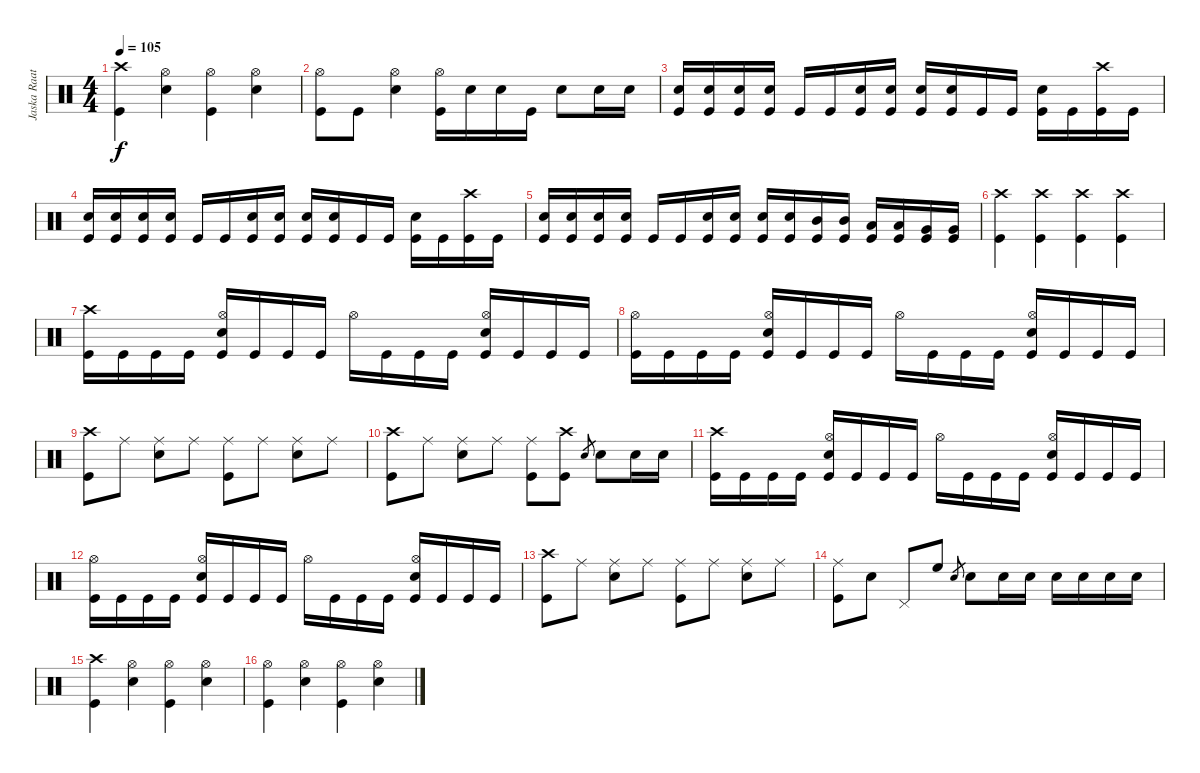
\track ("Jaska Raatikainen" "Jaska Raat") {instrument percussion}
\staff {score}
\articulation defaults
\ts (4 4)
\tempo 105
\clef neutral
\ks c
("Crash high (hit)" "Kick (hit)").4{dy f} ("Hi-Hat (open)" "Snare (hit) 2").4 ("Hi-Hat (open)" "Kick (hit)").4 ("Hi-Hat (open)" "Snare (hit) 2").4 |
("Hi-Hat (open)" "Kick (hit)").8 "Kick (hit)".8 ("Hi-Hat (open)" "Snare (hit) 2").4 ("Hi-Hat (open)" "Kick (hit)").16 "Snare (hit) 2".16 "Snare (hit) 2".16 "Kick (hit)".16 "Snare (hit) 2".8 "Snare (hit) 2".16 "Snare (hit) 2".16 |
("Snare (hit) 2" "Kick (hit)").16 ("Snare (hit) 2" "Kick (hit)").16 ("Snare (hit) 2" "Kick (hit)").16 ("Snare (hit) 2" "Kick (hit)").16 "Kick (hit)".16 "Kick (hit)".16 ("Snare (hit) 2" "Kick (hit)").16 ("Snare (hit) 2" "Kick (hit)").16 ("Snare (hit) 2" "Kick (hit)").16 ("Snare (hit) 2" "Kick (hit)").16 "Kick (hit)".16 "Kick (hit)".16 ("Snare (hit) 2" "Kick (hit)").16 "Kick (hit)".16 ("Crash high (hit)" "Kick (hit)").16 "Kick (hit)".16 |
("Snare (hit) 2" "Kick (hit)").16 ("Snare (hit) 2" "Kick (hit)").16 ("Snare (hit) 2" "Kick (hit)").16 ("Snare (hit) 2" "Kick (hit)").16 "Kick (hit)".16 "Kick (hit)".16 ("Snare (hit) 2" "Kick (hit)").16 ("Snare (hit) 2" "Kick (hit)").16 ("Snare (hit) 2" "Kick (hit)").16 ("Snare (hit) 2" "Kick (hit)").16 "Kick (hit)".16 "Kick (hit)".16 ("Snare (hit) 2" "Kick (hit)").16 "Kick (hit)".16 ("Crash high (hit)" "Kick (hit)").16 "Kick (hit)".16 |
("Snare (hit) 2" "Kick (hit)").16 ("Snare (hit) 2" "Kick (hit)").16 ("Snare (hit) 2" "Kick (hit)").16 ("Snare (hit) 2" "Kick (hit)").16 "Kick (hit)".16 "Kick (hit)".16 ("Snare (hit) 2" "Kick (hit)").16 ("Snare (hit) 2" "Kick (hit)").16 ("Snare (hit) 2" "Kick (hit)").16 ("Snare (hit) 2" "Kick (hit)").16 ("Mid Tom (hit)" "Kick (hit)").16 ("Mid Tom (hit)" "Kick (hit)").16 ("Low Tom (hit)" "Kick (hit)").16 ("Low Tom (hit)" "Kick (hit)").16 ("Very Low Tom (hit)" "Kick (hit)").16 ("Very Low Tom (hit)" "Kick (hit)").16 |
("Crash high (hit)" "Kick (hit)").4 ("Crash high (hit)" "Kick (hit)").4 ("Crash high (hit)" "Kick (hit)").4 ("Crash high (hit)" "Kick (hit)").4 |
("Crash high (hit)" "Kick (hit)").16 "Kick (hit)".16 "Kick (hit)".16 "Kick (hit)".16 ("Hi-Hat (open)" "Snare (hit) 2" "Kick (hit)").16 "Kick (hit)".16 "Kick (hit)".16 "Kick (hit)".16 "Hi-Hat (open)".16 "Kick (hit)".16 "Kick (hit)".16 "Kick (hit)".16 ("Hi-Hat (open)" "Snare (hit) 2" "Kick (hit)").16 "Kick (hit)".16 "Kick (hit)".16 "Kick (hit)".16 |
("Hi-Hat (open)" "Kick (hit)").16 "Kick (hit)".16 "Kick (hit)".16 "Kick (hit)".16 ("Hi-Hat (open)" "Snare (hit) 2" "Kick (hit)").16 "Kick (hit)".16 "Kick (hit)".16 "Kick (hit)".16 "Hi-Hat (open)".16 "Kick (hit)".16 "Kick (hit)".16 "Kick (hit)".16 ("Hi-Hat (open)" "Snare (hit) 2" "Kick (hit)").16 "Kick (hit)".16 "Kick (hit)".16 "Kick (hit)".16 |
("Crash high (hit)" "Kick (hit)").8 "Ride (middle)".8 ("Ride (middle)" "Snare (hit) 2").8 "Ride (middle)".8 ("Ride (middle)" "Kick (hit)").8 "Ride (middle)".8 ("Ride (middle)" "Snare (hit) 2").8 "Ride (middle)".8 |
("Crash high (hit)" "Kick (hit)").8 "Ride (middle)".8 ("Ride (middle)" "Snare (hit) 2").8 "Ride (middle)".8 ("Ride (middle)" "Kick (hit)").8 ("Crash high (hit)" "Kick (hit)").8 "Snare (hit) 2".8{gr} "Snare (hit) 2".8 "Snare (hit) 2".16 "Snare (hit) 2".16 |
("Crash high (hit)" "Kick (hit)").16 "Kick (hit)".16 "Kick (hit)".16 "Kick (hit)".16 ("Hi-Hat (open)" "Snare (hit) 2" "Kick (hit)").16 "Kick (hit)".16 "Kick (hit)".16 "Kick (hit)".16 "Hi-Hat (open)".16 "Kick (hit)".16 "Kick (hit)".16 "Kick (hit)".16 ("Hi-Hat (open)" "Snare (hit) 2" "Kick (hit)").16 "Kick (hit)".16 "Kick (hit)".16 "Kick (hit)".16 |
("Hi-Hat (open)" "Kick (hit)").16 "Kick (hit)".16 "Kick (hit)".16 "Kick (hit)".16 ("Hi-Hat (open)" "Snare (hit) 2" "Kick (hit)").16 "Kick (hit)".16 "Kick (hit)".16 "Kick (hit)".16 "Hi-Hat (open)".16 "Kick (hit)".16 "Kick (hit)".16 "Kick (hit)".16 ("Hi-Hat (open)" "Snare (hit) 2" "Kick (hit)").16 "Kick (hit)".16 "Kick (hit)".16 "Kick (hit)".16 |
("Crash high (hit)" "Kick (hit)").8 "Ride (middle)".8 ("Ride (middle)" "Snare (hit) 2").8 "Ride (middle)".8 ("Ride (middle)" "Kick (hit)").8 "Ride (middle)".8 ("Ride (middle)" "Snare (hit) 2").8 "Ride (middle)".8 |
("Ride (middle)" "Kick (hit)").8 "Snare (hit) 2".8 "Pedal Hi-Hat (hit)".8 "High Floor Tom (hit)".8 "Snare (hit) 2".8{gr} "Snare (hit) 2".8 "Snare (hit) 2".16 "Snare (hit) 2".16 "Snare (hit) 2".16 "Snare (hit) 2".16 "Snare (hit) 2".16 "Snare (hit) 2".16 |
("Crash high (hit)" "Kick (hit)").4 ("Hi-Hat (open)" "Snare (hit) 2").4 ("Hi-Hat (open)" "Kick (hit)").4 ("Hi-Hat (open)" "Snare (hit) 2").4 |
("Hi-Hat (open)" "Kick (hit)").4 ("Hi-Hat (open)" "Snare (hit) 2").4 ("Hi-Hat (open)" "Kick (hit)").4 ("Hi-Hat (open)" "Snare (hit) 2").4
